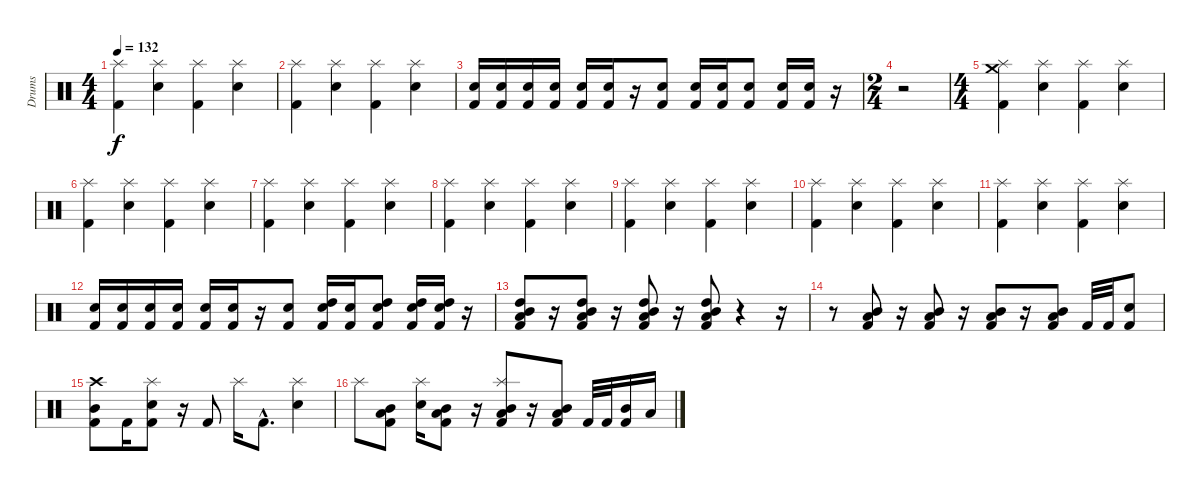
\track ("Drums" "Drums") {instrument percussion}
\staff {score}
\articulation defaults
\ts (4 4)
\tempo 132
\clef neutral
\ks c
("Kick (hit) 2" "Splash (hit)").4{dy f} ("Electric Snare (hit)" "Splash (hit)").4 ("Kick (hit) 2" "Splash (hit)").4 ("Electric Snare (hit)" "Splash (hit)").4 |
("Kick (hit) 2" "Splash (hit)").4 ("Electric Snare (hit)" "Splash (hit)").4 ("Kick (hit) 2" "Splash (hit)").4 ("Electric Snare (hit)" "Splash (hit)").4 |
("Kick (hit) 2" "Electric Snare (hit)").16 ("Kick (hit) 2" "Electric Snare (hit)").16 ("Kick (hit) 2" "Electric Snare (hit)").16 ("Kick (hit) 2" "Electric Snare (hit)").16 ("Kick (hit) 2" "Electric Snare (hit)").16 ("Kick (hit) 2" "Electric Snare (hit)").16 r.16 ("Kick (hit) 2" "Electric Snare (hit)").8 ("Kick (hit) 2" "Electric Snare (hit)").16 ("Kick (hit) 2" "Electric Snare (hit)").16 ("Kick (hit) 2" "Electric Snare (hit)").8 ("Kick (hit) 2" "Electric Snare (hit)").16 ("Kick (hit) 2" "Electric Snare (hit)").16 r.16 |
\ts (2 4)
r.2 |
\ts (4 4)
("Kick (hit) 2" "Splash (hit)" "Crash medium (hit)").4 ("Electric Snare (hit)" "Splash (hit)").4 ("Kick (hit) 2" "Splash (hit)").4 ("Electric Snare (hit)" "Splash (hit)").4 |
("Kick (hit) 2" "Splash (hit)").4 ("Electric Snare (hit)" "Splash (hit)").4 ("Kick (hit) 2" "Splash (hit)").4 ("Electric Snare (hit)" "Splash (hit)").4 |
("Kick (hit) 2" "Splash (hit)").4 ("Electric Snare (hit)" "Splash (hit)").4 ("Kick (hit) 2" "Splash (hit)").4 ("Electric Snare (hit)" "Splash (hit)").4 |
("Kick (hit) 2" "Splash (hit)").4 ("Electric Snare (hit)" "Splash (hit)").4 ("Kick (hit) 2" "Splash (hit)").4 ("Electric Snare (hit)" "Splash (hit)").4 |
("Kick (hit) 2" "Splash (hit)").4 ("Electric Snare (hit)" "Splash (hit)").4 ("Kick (hit) 2" "Splash (hit)").4 ("Electric Snare (hit)" "Splash (hit)").4 |
("Kick (hit) 2" "Splash (hit)").4 ("Electric Snare (hit)" "Splash (hit)").4 ("Kick (hit) 2" "Splash (hit)").4 ("Electric Snare (hit)" "Splash (hit)").4 |
("Kick (hit) 2" "Splash (hit)").4 ("Electric Snare (hit)" "Splash (hit)").4 ("Kick (hit) 2" "Splash (hit)").4 ("Electric Snare (hit)" "Splash (hit)").4 |
("Kick (hit) 2" "Electric Snare (hit)").16 ("Kick (hit) 2" "Electric Snare (hit)").16 ("Kick (hit) 2" "Electric Snare (hit)").16 ("Kick (hit) 2" "Electric Snare (hit)").16 ("Kick (hit) 2" "Electric Snare (hit)").16 ("Kick (hit) 2" "Electric Snare (hit)").16 r.16 ("Kick (hit) 2" "Electric Snare (hit)").8 ("High Tom (hit)" "Kick (hit) 2" "Electric Snare (hit)").16 ("Kick (hit) 2" "Electric Snare (hit)").16 ("High Tom (hit)" "Kick (hit) 2" "Electric Snare (hit)").8 ("High Tom (hit)" "Kick (hit) 2" "Electric Snare (hit)").16 ("High Tom (hit)" "Kick (hit) 2" "Electric Snare (hit)").16 r.16 |
("Kick (hit) 2" "Mid Tom (hit)" "Low Tom (hit)" "High Tom (hit)").8 r.16 ("Kick (hit) 2" "Mid Tom (hit)" "Low Tom (hit)" "High Tom (hit)").8 r.16 ("Kick (hit) 2" "Mid Tom (hit)" "Low Tom (hit)" "High Tom (hit)").8 r.16 ("Kick (hit) 2" "Mid Tom (hit)" "Low Tom (hit)" "High Tom (hit)").8 r.4 r.16 |
r.8 ("Kick (hit) 2" "Mid Tom (hit)" "Low Tom (hit)").8 r.16 ("Kick (hit) 2" "Mid Tom (hit)" "Low Tom (hit)").8 r.16 ("Kick (hit) 2" "Mid Tom (hit)" "Low Tom (hit)").8 r.16 ("Kick (hit) 2" "Mid Tom (hit)" "Low Tom (hit)").8 "Kick (hit) 2".32 "Kick (hit) 2".32 ("Kick (hit) 2" "Electric Snare (hit)").8 |
("Kick (hit) 2" "Mid Tom (hit)" "Crash high (hit)").8 "Kick (hit) 2".16 ("Kick (hit) 2" "Electric Snare (hit)" "Splash (hit)").8 r.16 "Kick (hit) 2".8 "Splash (hit)".16 "Kick (hit) 2"{hac}.8{d} ("Electric Snare (hit)" "Splash (hit)").4 |
"Splash (hit)".8 ("Kick (hit) 2" "Mid Tom (hit)" "Low Tom (hit)").8 ("Electric Snare (hit)" "Splash (hit)").16 ("Kick (hit) 2" "Mid Tom (hit)" "Low Tom (hit)").8 r.16 ("Kick (hit) 2" "Mid Tom (hit)" "Low Tom (hit)" "Splash (hit)").8 r.16 ("Kick (hit) 2" "Mid Tom (hit)" "Low Tom (hit)").8 "Kick (hit) 2".32 "Kick (hit) 2".32 ("Kick (hit) 2" "Mid Tom (hit)").16 "Low Tom (hit)".16
